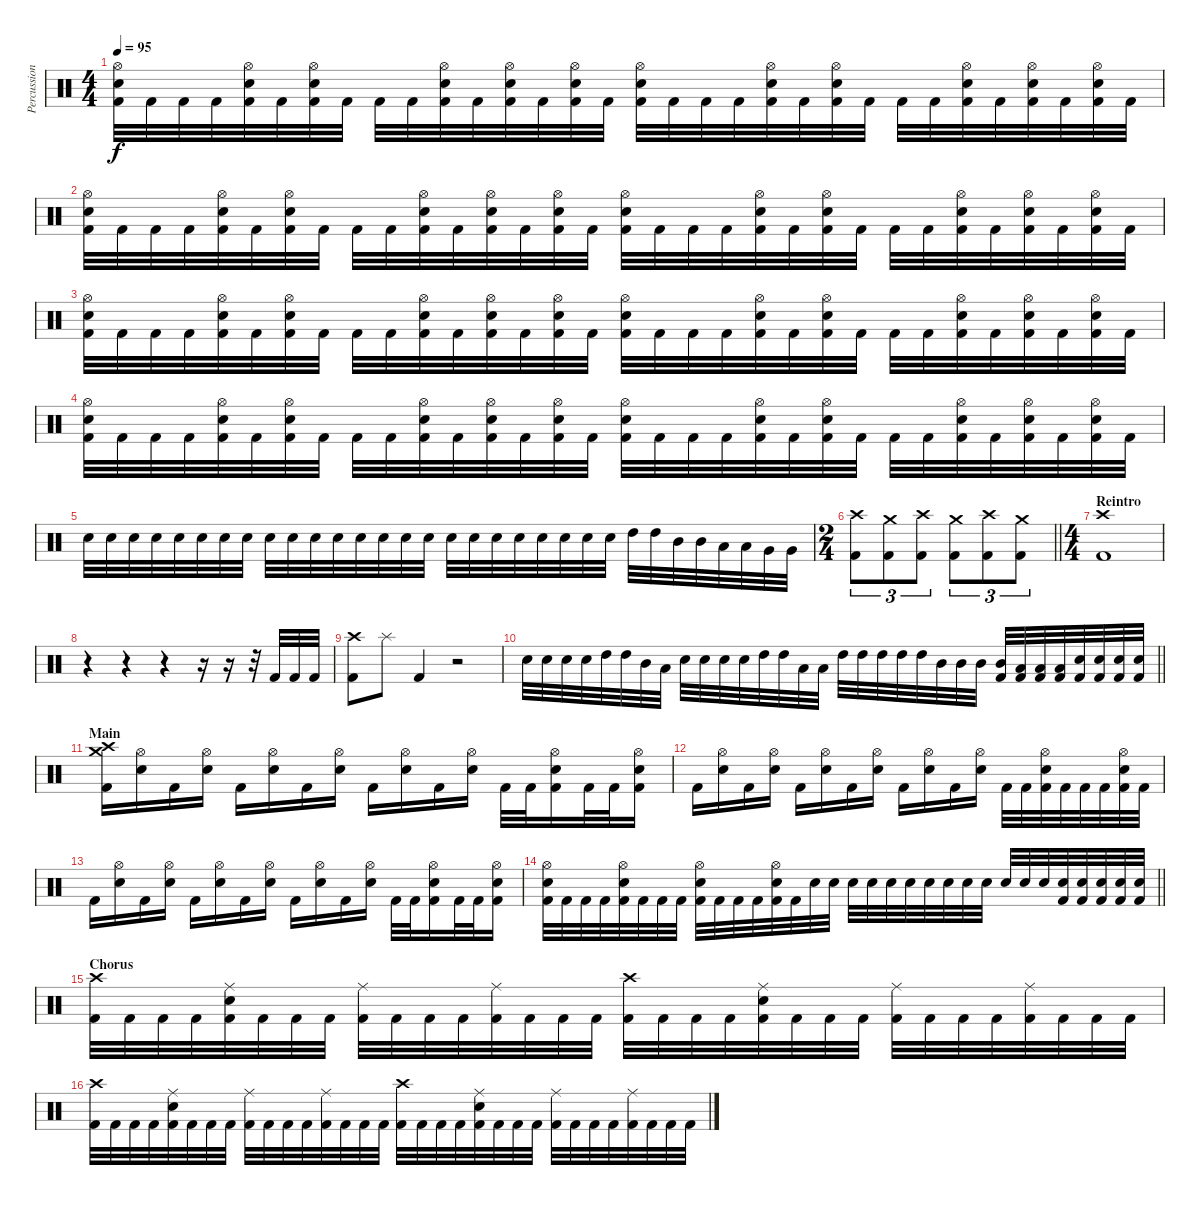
\track ("Percussion" "Percussion") {instrument percussion}
\staff {score}
\articulation defaults
\ts (4 4)
\tempo 95
\clef neutral
\ks c
("Hi-Hat (open)" "Electric Snare (hit)" "Kick (hit) 2").32{dy f} "Kick (hit) 2".32 "Kick (hit) 2".32 "Kick (hit) 2".32 ("Hi-Hat (open)" "Electric Snare (hit)" "Kick (hit) 2").32 "Kick (hit) 2".32 ("Hi-Hat (open)" "Electric Snare (hit)" "Kick (hit) 2").32 "Kick (hit) 2".32 "Kick (hit) 2".32 "Kick (hit) 2".32 ("Hi-Hat (open)" "Electric Snare (hit)" "Kick (hit) 2").32 "Kick (hit) 2".32 ("Hi-Hat (open)" "Electric Snare (hit)" "Kick (hit) 2").32 "Kick (hit) 2".32 ("Hi-Hat (open)" "Electric Snare (hit)" "Kick (hit) 2").32 "Kick (hit) 2".32 ("Hi-Hat (open)" "Electric Snare (hit)" "Kick (hit) 2").32 "Kick (hit) 2".32 "Kick (hit) 2".32 "Kick (hit) 2".32 ("Hi-Hat (open)" "Electric Snare (hit)" "Kick (hit) 2").32 "Kick (hit) 2".32 ("Hi-Hat (open)" "Electric Snare (hit)" "Kick (hit) 2").32 "Kick (hit) 2".32 "Kick (hit) 2".32 "Kick (hit) 2".32 ("Hi-Hat (open)" "Electric Snare (hit)" "Kick (hit) 2").32 "Kick (hit) 2".32 ("Hi-Hat (open)" "Electric Snare (hit)" "Kick (hit) 2").32 "Kick (hit) 2".32 ("Hi-Hat (open)" "Electric Snare (hit)" "Kick (hit) 2").32 "Kick (hit) 2".32 |
("Hi-Hat (open)" "Electric Snare (hit)" "Kick (hit) 2").32 "Kick (hit) 2".32 "Kick (hit) 2".32 "Kick (hit) 2".32 ("Hi-Hat (open)" "Electric Snare (hit)" "Kick (hit) 2").32 "Kick (hit) 2".32 ("Hi-Hat (open)" "Electric Snare (hit)" "Kick (hit) 2").32 "Kick (hit) 2".32 "Kick (hit) 2".32 "Kick (hit) 2".32 ("Hi-Hat (open)" "Electric Snare (hit)" "Kick (hit) 2").32 "Kick (hit) 2".32 ("Hi-Hat (open)" "Electric Snare (hit)" "Kick (hit) 2").32 "Kick (hit) 2".32 ("Hi-Hat (open)" "Electric Snare (hit)" "Kick (hit) 2").32 "Kick (hit) 2".32 ("Hi-Hat (open)" "Electric Snare (hit)" "Kick (hit) 2").32 "Kick (hit) 2".32 "Kick (hit) 2".32 "Kick (hit) 2".32 ("Hi-Hat (open)" "Electric Snare (hit)" "Kick (hit) 2").32 "Kick (hit) 2".32 ("Hi-Hat (open)" "Electric Snare (hit)" "Kick (hit) 2").32 "Kick (hit) 2".32 "Kick (hit) 2".32 "Kick (hit) 2".32 ("Hi-Hat (open)" "Electric Snare (hit)" "Kick (hit) 2").32 "Kick (hit) 2".32 ("Hi-Hat (open)" "Electric Snare (hit)" "Kick (hit) 2").32 "Kick (hit) 2".32 ("Hi-Hat (open)" "Electric Snare (hit)" "Kick (hit) 2").32 "Kick (hit) 2".32 |
("Hi-Hat (open)" "Electric Snare (hit)" "Kick (hit) 2").32 "Kick (hit) 2".32 "Kick (hit) 2".32 "Kick (hit) 2".32 ("Hi-Hat (open)" "Electric Snare (hit)" "Kick (hit) 2").32 "Kick (hit) 2".32 ("Hi-Hat (open)" "Electric Snare (hit)" "Kick (hit) 2").32 "Kick (hit) 2".32 "Kick (hit) 2".32 "Kick (hit) 2".32 ("Hi-Hat (open)" "Electric Snare (hit)" "Kick (hit) 2").32 "Kick (hit) 2".32 ("Hi-Hat (open)" "Electric Snare (hit)" "Kick (hit) 2").32 "Kick (hit) 2".32 ("Hi-Hat (open)" "Electric Snare (hit)" "Kick (hit) 2").32 "Kick (hit) 2".32 ("Hi-Hat (open)" "Electric Snare (hit)" "Kick (hit) 2").32 "Kick (hit) 2".32 "Kick (hit) 2".32 "Kick (hit) 2".32 ("Hi-Hat (open)" "Electric Snare (hit)" "Kick (hit) 2").32 "Kick (hit) 2".32 ("Hi-Hat (open)" "Electric Snare (hit)" "Kick (hit) 2").32 "Kick (hit) 2".32 "Kick (hit) 2".32 "Kick (hit) 2".32 ("Hi-Hat (open)" "Electric Snare (hit)" "Kick (hit) 2").32 "Kick (hit) 2".32 ("Hi-Hat (open)" "Electric Snare (hit)" "Kick (hit) 2").32 "Kick (hit) 2".32 ("Hi-Hat (open)" "Electric Snare (hit)" "Kick (hit) 2").32 "Kick (hit) 2".32 |
("Hi-Hat (open)" "Electric Snare (hit)" "Kick (hit) 2").32 "Kick (hit) 2".32 "Kick (hit) 2".32 "Kick (hit) 2".32 ("Hi-Hat (open)" "Electric Snare (hit)" "Kick (hit) 2").32 "Kick (hit) 2".32 ("Hi-Hat (open)" "Electric Snare (hit)" "Kick (hit) 2").32 "Kick (hit) 2".32 "Kick (hit) 2".32 "Kick (hit) 2".32 ("Hi-Hat (open)" "Electric Snare (hit)" "Kick (hit) 2").32 "Kick (hit) 2".32 ("Hi-Hat (open)" "Electric Snare (hit)" "Kick (hit) 2").32 "Kick (hit) 2".32 ("Hi-Hat (open)" "Electric Snare (hit)" "Kick (hit) 2").32 "Kick (hit) 2".32 ("Hi-Hat (open)" "Electric Snare (hit)" "Kick (hit) 2").32 "Kick (hit) 2".32 "Kick (hit) 2".32 "Kick (hit) 2".32 ("Hi-Hat (open)" "Electric Snare (hit)" "Kick (hit) 2").32 "Kick (hit) 2".32 ("Hi-Hat (open)" "Electric Snare (hit)" "Kick (hit) 2").32 "Kick (hit) 2".32 "Kick (hit) 2".32 "Kick (hit) 2".32 ("Hi-Hat (open)" "Electric Snare (hit)" "Kick (hit) 2").32 "Kick (hit) 2".32 ("Hi-Hat (open)" "Electric Snare (hit)" "Kick (hit) 2").32 "Kick (hit) 2".32 ("Hi-Hat (open)" "Electric Snare (hit)" "Kick (hit) 2").32 "Kick (hit) 2".32 |
"Electric Snare (hit)".32 "Electric Snare (hit)".32 "Electric Snare (hit)".32 "Electric Snare (hit)".32 "Electric Snare (hit)".32 "Electric Snare (hit)".32 "Electric Snare (hit)".32 "Electric Snare (hit)".32 "Electric Snare (hit)".32 "Electric Snare (hit)".32 "Electric Snare (hit)".32 "Electric Snare (hit)".32 "Electric Snare (hit)".32 "Electric Snare (hit)".32 "Electric Snare (hit)".32 "Electric Snare (hit)".32 "Electric Snare (hit)".32 "Electric Snare (hit)".32 "Electric Snare (hit)".32 "Electric Snare (hit)".32 "Electric Snare (hit)".32 "Electric Snare (hit)".32 "Electric Snare (hit)".32 "Electric Snare (hit)".32 "High Tom (hit)".32 "High Tom (hit)".32 "Mid Tom (hit)".32 "Mid Tom (hit)".32 "Low Tom (hit)".32 "Low Tom (hit)".32 "Very Low Tom (hit)".32 "Very Low Tom (hit)".32 |
\ts (2 4)
\barLineRight lightlight
("Crash high (hit)" "Kick (hit) 2").8{tu (3 2)} ("Crash medium (hit)" "Kick (hit) 2").8{tu (3 2)} ("Crash high (hit)" "Kick (hit) 2").8{tu (3 2)} ("Crash medium (hit)" "Kick (hit) 2").8{tu (3 2)} ("Crash high (hit)" "Kick (hit) 2").8{tu (3 2)} ("Crash medium (hit)" "Kick (hit) 2").8{tu (3 2)} |
\ts (4 4)
\section ("" "Reintro")
("Crash high (hit)" "Kick (hit) 2").1 |
r.4 r.4 r.4 r.16 r.16 r.32 "Kick (hit) 2".32 "Kick (hit) 2".32 "Kick (hit) 2".32 |
("Crash high (hit)" "Kick (hit) 2").8 "Splash (hit)".8 "Kick (hit) 2".4 r.2 |
\barLineRight lightlight "Electric Snare (hit)".32 "Electric Snare (hit)".32 "Electric Snare (hit)".32 "Electric Snare (hit)".32 "High Tom (hit)".32 "High Tom (hit)".32 "Mid Tom (hit)".32 "Low Tom (hit)".32 "Electric Snare (hit)".32 "Electric Snare (hit)".32 "Electric Snare (hit)".32 "Electric Snare (hit)".32 "High Tom (hit)".32 "High Tom (hit)".32 "Low Tom (hit)".32 "Low Tom (hit)".32 "High Tom (hit)".32 "High Tom (hit)".32 "High Tom (hit)".32 "High Tom (hit)".32 "High Tom (hit)".32 "Mid Tom (hit)".32 "Mid Tom (hit)".32 "Mid Tom (hit)".32
("Mid Tom (hit)" "Kick (hit) 2").32 ("Low Tom (hit)" "Kick (hit) 2").32 ("Low Tom (hit)" "Kick (hit) 2").32 ("Low Tom (hit)" "Kick (hit) 2").32 ("Electric Snare (hit)" "Kick (hit) 2").32 ("Electric Snare (hit)" "Kick (hit) 2").32 ("Electric Snare (hit)" "Kick (hit) 2").32 ("Electric Snare (hit)" "Kick (hit) 2").32 |
\section ("" "Main")
("Crash medium (hit)" "Crash high (hit)" "Kick (hit) 2").16 ("Hi-Hat (open)" "Electric Snare (hit)").16 "Kick (hit) 2".16 ("Hi-Hat (open)" "Electric Snare (hit)").16 "Kick (hit) 2".16 ("Hi-Hat (open)" "Electric Snare (hit)").16 "Kick (hit) 2".16 ("Hi-Hat (open)" "Electric Snare (hit)").16 "Kick (hit) 2".16 ("Hi-Hat (open)" "Electric Snare (hit)").16 "Kick (hit) 2".16 ("Hi-Hat (open)" "Electric Snare (hit)").16 "Kick (hit) 2".32 "Kick (hit) 2".32 ("Hi-Hat (open)" "Electric Snare (hit)" "Kick (hit) 2").16 "Kick (hit) 2".32 "Kick (hit) 2".32 ("Hi-Hat (open)" "Electric Snare (hit)" "Kick (hit) 2").16 |
"Kick (hit) 2".16 ("Hi-Hat (open)" "Electric Snare (hit)").16 "Kick (hit) 2".16 ("Hi-Hat (open)" "Electric Snare (hit)").16 "Kick (hit) 2".16 ("Hi-Hat (open)" "Electric Snare (hit)").16 "Kick (hit) 2".16 ("Hi-Hat (open)" "Electric Snare (hit)").16 "Kick (hit) 2".16 ("Hi-Hat (open)" "Electric Snare (hit)").16 "Kick (hit) 2".16 ("Hi-Hat (open)" "Electric Snare (hit)").16 "Kick (hit) 2".32 "Kick (hit) 2".32 ("Hi-Hat (open)" "Electric Snare (hit)" "Kick (hit) 2").32 "Kick (hit) 2".32 "Kick (hit) 2".32 "Kick (hit) 2".32 ("Hi-Hat (open)" "Electric Snare (hit)" "Kick (hit) 2").32 "Kick (hit) 2".32 |
"Kick (hit) 2".16 ("Hi-Hat (open)" "Electric Snare (hit)").16 "Kick (hit) 2".16 ("Hi-Hat (open)" "Electric Snare (hit)").16 "Kick (hit) 2".16 ("Hi-Hat (open)" "Electric Snare (hit)").16 "Kick (hit) 2".16 ("Hi-Hat (open)" "Electric Snare (hit)").16 "Kick (hit) 2".16 ("Hi-Hat (open)" "Electric Snare (hit)").16 "Kick (hit) 2".16 ("Hi-Hat (open)" "Electric Snare (hit)").16 "Kick (hit) 2".32 "Kick (hit) 2".32 ("Hi-Hat (open)" "Electric Snare (hit)" "Kick (hit) 2").16 "Kick (hit) 2".32 "Kick (hit) 2".32 ("Hi-Hat (open)" "Electric Snare (hit)" "Kick (hit) 2").16 |
\barLineRight lightlight
("Hi-Hat (open)" "Electric Snare (hit)" "Kick (hit) 2").32 "Kick (hit) 2".32 "Kick (hit) 2".32 "Kick (hit) 2".32 ("Hi-Hat (open)" "Electric Snare (hit)" "Kick (hit) 2").32 "Kick (hit) 2".32 "Kick (hit) 2".32 "Kick (hit) 2".32 ("Hi-Hat (open)" "Electric Snare (hit)" "Kick (hit) 2").32 "Kick (hit) 2".32 "Kick (hit) 2".32 "Kick (hit) 2".32 ("Hi-Hat (open)" "Electric Snare (hit)" "Kick (hit) 2").32 "Kick (hit) 2".32 "Electric Snare (hit)".32 "Electric Snare (hit)".32 "Electric Snare (hit)".32 "Electric Snare (hit)".32 "Electric Snare (hit)".32 "Electric Snare (hit)".32 "Electric Snare (hit)".32 "Electric Snare (hit)".32 "Electric Snare (hit)".32 "Electric Snare (hit)".32 "Electric Snare (hit)".32 "Electric Snare (hit)".32 "Electric Snare (hit)".32 ("Electric Snare (hit)" "Kick (hit) 2").32 ("Electric Snare (hit)" "Kick (hit) 2").32 ("Electric Snare (hit)" "Kick (hit) 2").32 ("Electric Snare (hit)" "Kick (hit) 2").32 ("Electric Snare (hit)" "Kick (hit) 2").32 |
\section ("" "Chorus")
("Crash high (hit)" "Kick (hit) 2").32 "Kick (hit) 2".32 "Kick (hit) 2".32 "Kick (hit) 2".32 ("Ride (middle)" "Electric Snare (hit)" "Kick (hit) 2").32 "Kick (hit) 2".32 "Kick (hit) 2".32 "Kick (hit) 2".32 ("Ride (middle)" "Kick (hit) 2").32 "Kick (hit) 2".32 "Kick (hit) 2".32 "Kick (hit) 2".32 ("Ride (middle)" "Kick (hit) 2").32 "Kick (hit) 2".32 "Kick (hit) 2".32 "Kick (hit) 2".32 ("Crash high (hit)" "Kick (hit) 2").32 "Kick (hit) 2".32 "Kick (hit) 2".32 "Kick (hit) 2".32 ("Ride (middle)" "Electric Snare (hit)" "Kick (hit) 2").32 "Kick (hit) 2".32 "Kick (hit) 2".32 "Kick (hit) 2".32 ("Ride (middle)" "Kick (hit) 2").32 "Kick (hit) 2".32 "Kick (hit) 2".32 "Kick (hit) 2".32 ("Ride (middle)" "Kick (hit) 2").32 "Kick (hit) 2".32 "Kick (hit) 2".32 "Kick (hit) 2".32 |
("Crash high (hit)" "Kick (hit) 2").32 "Kick (hit) 2".32 "Kick (hit) 2".32 "Kick (hit) 2".32 ("Ride (middle)" "Electric Snare (hit)" "Kick (hit) 2").32 "Kick (hit) 2".32 "Kick (hit) 2".32 "Kick (hit) 2".32 ("Ride (middle)" "Kick (hit) 2").32 "Kick (hit) 2".32 "Kick (hit) 2".32 "Kick (hit) 2".32 ("Ride (middle)" "Kick (hit) 2").32 "Kick (hit) 2".32 "Kick (hit) 2".32 "Kick (hit) 2".32 ("Crash high (hit)" "Kick (hit) 2").32 "Kick (hit) 2".32 "Kick (hit) 2".32 "Kick (hit) 2".32 ("Ride (middle)" "Electric Snare (hit)" "Kick (hit) 2").32 "Kick (hit) 2".32 "Kick (hit) 2".32 "Kick (hit) 2".32 ("Ride (middle)" "Kick (hit) 2").32 "Kick (hit) 2".32 "Kick (hit) 2".32 "Kick (hit) 2".32 ("Ride (middle)" "Kick (hit) 2").32 "Kick (hit) 2".32 "Kick (hit) 2".32 "Kick (hit) 2".32
